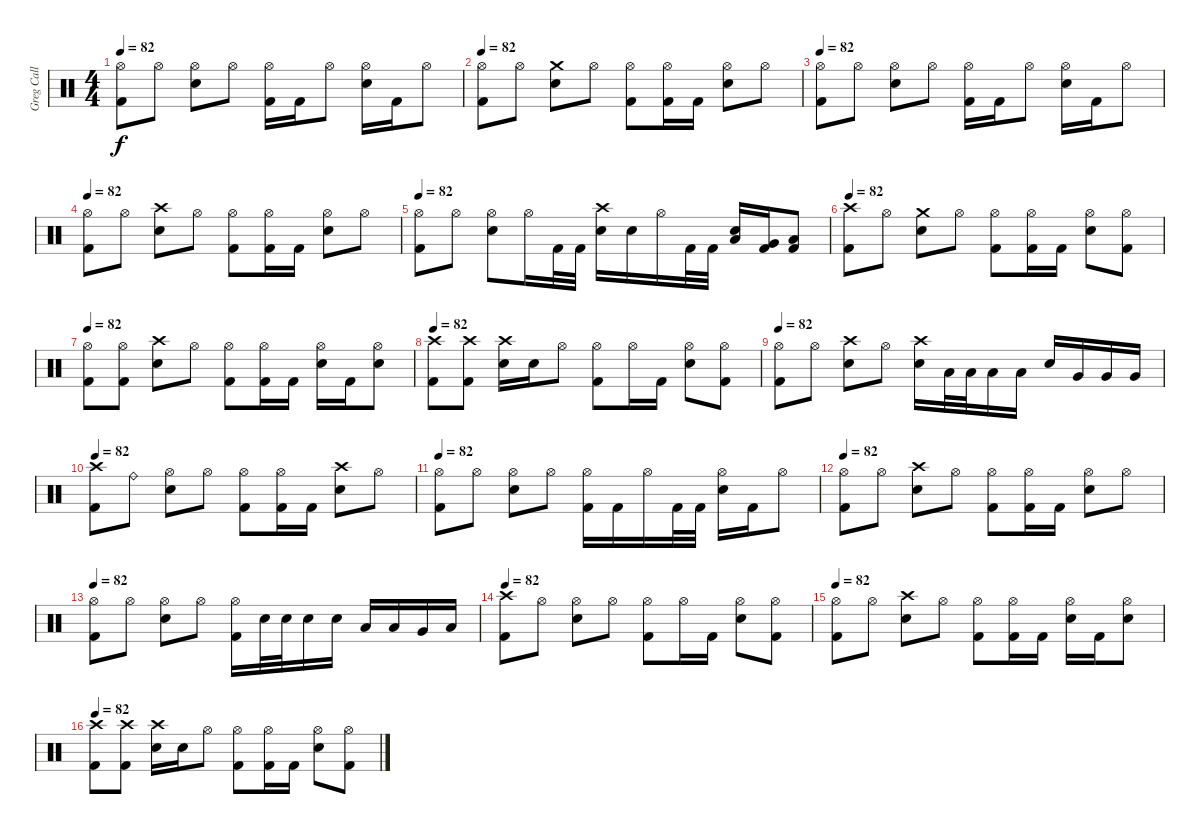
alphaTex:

\track ("Greg Call (Drums)" "Greg Call ") {instrument percussion}
\staff {score}
\articulation defaults
\ts (4 4)
\tempo 82
\clef neutral
\ks c
("Hi-Hat (open)" "Kick (hit) 2").8{dy f} "Hi-Hat (open)".8 ("Hi-Hat (open)" "Snare (hit) 2").8 "Hi-Hat (open)".8 ("Hi-Hat (open)" "Kick (hit) 2").16 "Kick (hit) 2".16 "Hi-Hat (open)".8 ("Hi-Hat (open)" "Snare (hit) 2").16 "Kick (hit) 2".16 "Hi-Hat (open)".8 |
\tempo 82
("Hi-Hat (open)" "Kick (hit) 2").8 "Hi-Hat (open)".8 ("Crash medium (hit)" "Snare (hit) 2").8 "Hi-Hat (open)".8 ("Hi-Hat (open)" "Kick (hit) 2").8 ("Hi-Hat (open)" "Kick (hit) 2").16 "Kick (hit) 2".16 ("Hi-Hat (open)" "Snare (hit) 2").8 "Hi-Hat (open)".8 |
\tempo 82
("Hi-Hat (open)" "Kick (hit) 2").8 "Hi-Hat (open)".8 ("Hi-Hat (open)" "Snare (hit) 2").8 "Hi-Hat (open)".8 ("Hi-Hat (open)" "Kick (hit) 2").16 "Kick (hit) 2".16 "Hi-Hat (open)".8 ("Hi-Hat (open)" "Snare (hit) 2").16 "Kick (hit) 2".16 "Hi-Hat (open)".8 |
\tempo 82
("Hi-Hat (open)" "Kick (hit) 2").8 "Hi-Hat (open)".8 ("Crash high (hit)" "Snare (hit) 2").8 "Hi-Hat (open)".8 ("Hi-Hat (open)" "Kick (hit) 2").8 ("Hi-Hat (open)" "Kick (hit) 2").16 "Kick (hit) 2".16 ("Hi-Hat (open)" "Snare (hit) 2").8 "Hi-Hat (open)".8 |
\tempo 82
("Hi-Hat (open)" "Kick (hit) 2").8 "Hi-Hat (open)".8 ("Hi-Hat (open)" "Snare (hit) 2").8 "Hi-Hat (open)".16 "Kick (hit) 2".32 "Kick (hit) 2".32 ("Crash high (hit)" "Snare (hit) 2").16 "Snare (hit) 2".16 "Hi-Hat (open)".16 "Kick (hit) 2".32 "Kick (hit) 2".32 ("Low Tom (hit)" "Snare (hit) 2").16 ("Very Low Tom (hit)" "Kick (hit) 2").16 ("Low Floor Tom (hit)" "Kick (hit) 2").8 |
\tempo 82
("Crash high (hit)" "Kick (hit) 2").8 "Hi-Hat (open)".8 ("Crash medium (hit)" "Snare (hit) 2").8 "Hi-Hat (open)".8 ("Hi-Hat (open)" "Kick (hit) 2").8 ("Hi-Hat (open)" "Kick (hit) 2").16 "Kick (hit) 2".16 ("Hi-Hat (open)" "Snare (hit) 2").8 ("Hi-Hat (open)" "Kick (hit) 2").8 |
\tempo 82
("Hi-Hat (open)" "Kick (hit) 2").8 ("Hi-Hat (open)" "Kick (hit) 2").8 ("Crash high (hit)" "Snare (hit) 2").8 "Hi-Hat (open)".8 ("Hi-Hat (open)" "Kick (hit) 2").8 ("Hi-Hat (open)" "Kick (hit) 2").16 "Kick (hit) 2".16 ("Hi-Hat (open)" "Snare (hit) 2").16 "Kick (hit) 2".16 ("Hi-Hat (open)" "Snare (hit) 2").8 |
\tempo 82
("Crash high (hit)" "Kick (hit) 2").8 ("Crash high (hit)" "Kick (hit) 2").8 ("Crash high (hit)" "Snare (hit) 2").16 "Snare (hit) 2".16 "Hi-Hat (open)".8 ("Hi-Hat (open)" "Kick (hit) 2").8 "Hi-Hat (open)".16 "Kick (hit) 2".16 ("Hi-Hat (open)" "Snare (hit) 2").8 ("Hi-Hat (open)" "Kick (hit) 2").8 |
\tempo 82
("Hi-Hat (open)" "Kick (hit) 2").8 "Hi-Hat (open)".8 ("Crash high (hit)" "Snare (hit) 2").8 "Hi-Hat (open)".8 ("Crash high (hit)" "Snare (hit) 2").16 "Low Tom (hit)".32 "Low Tom (hit)".32 "Low Tom (hit)".16 "Low Tom (hit)".16 "Snare (hit) 2".16 "Very Low Tom (hit)".16 "Very Low Tom (hit)".16 "Very Low Tom (hit)".16 |
\tempo 82
("Crash high (hit)" "Kick (hit) 2").8 "Ride (bell)".8 ("Hi-Hat (open)" "Snare (hit) 2").8 "Hi-Hat (open)".8 ("Hi-Hat (open)" "Kick (hit) 2").8 ("Hi-Hat (open)" "Kick (hit) 2").16 "Kick (hit) 2".16 ("Crash high (hit)" "Snare (hit) 2").8 "Hi-Hat (open)".8 |
\tempo 82
("Hi-Hat (open)" "Kick (hit) 2").8 "Hi-Hat (open)".8 ("Hi-Hat (open)" "Snare (hit) 2").8 "Hi-Hat (open)".8 ("Hi-Hat (open)" "Kick (hit) 2").16 "Kick (hit) 2".16 "Hi-Hat (open)".16 "Kick (hit) 2".32 "Kick (hit) 2".32 ("Hi-Hat (open)" "Snare (hit) 2").16 "Kick (hit) 2".16 "Hi-Hat (open)".8 |
\tempo 82
("Hi-Hat (open)" "Kick (hit) 2").8 "Hi-Hat (open)".8 ("Crash high (hit)" "Snare (hit) 2").8 "Hi-Hat (open)".8 ("Hi-Hat (open)" "Kick (hit) 2").8 ("Hi-Hat (open)" "Kick (hit) 2").16 "Kick (hit) 2".16 ("Hi-Hat (open)" "Snare (hit) 2").8 "Hi-Hat (open)".8 |
\tempo 82
("Hi-Hat (open)" "Kick (hit) 2").8 "Hi-Hat (open)".8 ("Hi-Hat (open)" "Snare (hit) 2").8 "Hi-Hat (open)".8 ("Hi-Hat (open)" "Kick (hit) 2").16 "Snare (hit) 2".32 "Snare (hit) 2".32 "Snare (hit) 2".16 "Snare (hit) 2".16 "Low Tom (hit)".16 "Low Tom (hit)".16 "Very Low Tom (hit)".16 "Low Floor Tom (hit)".16 |
\tempo 82
("Crash high (hit)" "Kick (hit) 2").8 "Hi-Hat (open)".8 ("Hi-Hat (open)" "Snare (hit) 2").8 "Hi-Hat (open)".8 ("Hi-Hat (open)" "Kick (hit) 2").8 "Hi-Hat (open)".16 "Kick (hit) 2".16 ("Hi-Hat (open)" "Snare (hit) 2").8 ("Hi-Hat (open)" "Kick (hit) 2").8 |
\tempo 82
("Hi-Hat (open)" "Kick (hit) 2").8 "Hi-Hat (open)".8 ("Crash high (hit)" "Snare (hit) 2").8 "Hi-Hat (open)".8 ("Hi-Hat (open)" "Kick (hit) 2").8 ("Hi-Hat (open)" "Kick (hit) 2").16 "Kick (hit) 2".16 ("Hi-Hat (open)" "Snare (hit) 2").16 "Kick (hit) 2".16 ("Hi-Hat (open)" "Snare (hit) 2").8 |
\tempo 82
("Crash high (hit)" "Kick (hit) 2").8 ("Crash high (hit)" "Kick (hit) 2").8 ("Crash high (hit)" "Snare (hit) 2").16 "Snare (hit) 2".16 "Hi-Hat (open)".8 ("Hi-Hat (open)" "Kick (hit) 2").8 ("Hi-Hat (open)" "Kick (hit) 2").16 "Kick (hit) 2".16 ("Hi-Hat (open)" "Snare (hit) 2").8 ("Hi-Hat (open)" "Kick (hit) 2").8
